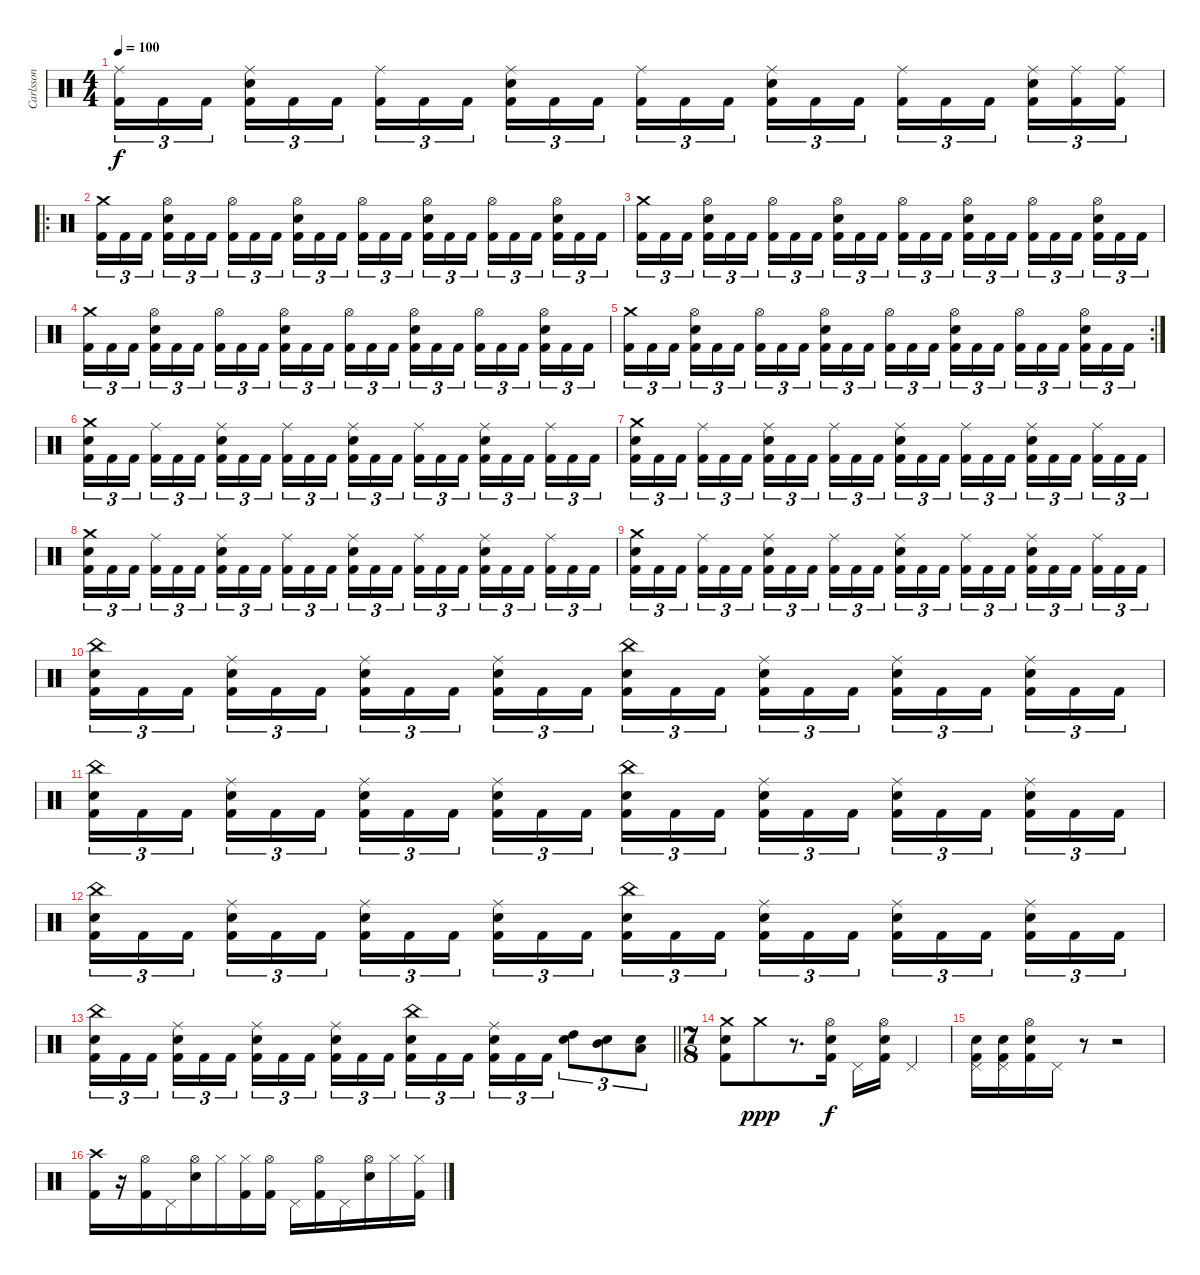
\track ("Carlsson" "Carlsson") {instrument percussion}
\staff {score}
\articulation defaults
\ts (4 4)
\tempo 100
\clef neutral
\ks c
("Ride (middle)" "Kick (hit) 2").16{tu (3 2) dy f} "Kick (hit) 2".16{tu (3 2)} "Kick (hit) 2".16{tu (3 2)} ("Ride (middle)" "Electric Snare (hit)" "Kick (hit) 2").16{tu (3 2)} "Kick (hit) 2".16{tu (3 2)} "Kick (hit) 2".16{tu (3 2)} ("Ride (middle)" "Kick (hit) 2").16{tu (3 2)} "Kick (hit) 2".16{tu (3 2)} "Kick (hit) 2".16{tu (3 2)} ("Ride (middle)" "Electric Snare (hit)" "Kick (hit) 2").16{tu (3 2)} "Kick (hit) 2".16{tu (3 2)} "Kick (hit) 2".16{tu (3 2)} ("Ride (middle)" "Kick (hit) 2").16{tu (3 2)} "Kick (hit) 2".16{tu (3 2)} "Kick (hit) 2".16{tu (3 2)} ("Ride (middle)" "Electric Snare (hit)" "Kick (hit) 2").16{tu (3 2)} "Kick (hit) 2".16{tu (3 2)} "Kick (hit) 2".16{tu (3 2)} ("Ride (middle)" "Kick (hit) 2").16{tu (3 2)} "Kick (hit) 2".16{tu (3 2)} "Kick (hit) 2".16{tu (3 2)} ("Ride (middle)" "Electric Snare (hit)" "Kick (hit) 2").16{tu (3 2)} ("Ride (middle)" "Kick (hit) 2").16{tu (3 2)} ("Ride (middle)" "Kick (hit) 2").16{tu (3 2)} |
\ro
("Crash medium (hit)" "Kick (hit) 2").16{tu (3 2)} "Kick (hit) 2".16{tu (3 2)} "Kick (hit) 2".16{tu (3 2)} ("Hi-Hat (open)" "Electric Snare (hit)" "Kick (hit) 2").16{tu (3 2)} "Kick (hit) 2".16{tu (3 2)} "Kick (hit) 2".16{tu (3 2)} ("Hi-Hat (open)" "Kick (hit) 2").16{tu (3 2)} "Kick (hit) 2".16{tu (3 2)} "Kick (hit) 2".16{tu (3 2)} ("Hi-Hat (open)" "Electric Snare (hit)" "Kick (hit) 2").16{tu (3 2)} "Kick (hit) 2".16{tu (3 2)} "Kick (hit) 2".16{tu (3 2)} ("Hi-Hat (open)" "Kick (hit) 2").16{tu (3 2)} "Kick (hit) 2".16{tu (3 2)} "Kick (hit) 2".16{tu (3 2)} ("Hi-Hat (open)" "Electric Snare (hit)" "Kick (hit) 2").16{tu (3 2)} "Kick (hit) 2".16{tu (3 2)} "Kick (hit) 2".16{tu (3 2)} ("Hi-Hat (open)" "Kick (hit) 2").16{tu (3 2)} "Kick (hit) 2".16{tu (3 2)} "Kick (hit) 2".16{tu (3 2)} ("Hi-Hat (open)" "Electric Snare (hit)" "Kick (hit) 2").16{tu (3 2)} "Kick (hit) 2".16{tu (3 2)} "Kick (hit) 2".16{tu (3 2)} |
("Crash medium (hit)" "Kick (hit) 2").16{tu (3 2)} "Kick (hit) 2".16{tu (3 2)} "Kick (hit) 2".16{tu (3 2)} ("Hi-Hat (open)" "Electric Snare (hit)" "Kick (hit) 2").16{tu (3 2)} "Kick (hit) 2".16{tu (3 2)} "Kick (hit) 2".16{tu (3 2)} ("Hi-Hat (open)" "Kick (hit) 2").16{tu (3 2)} "Kick (hit) 2".16{tu (3 2)} "Kick (hit) 2".16{tu (3 2)} ("Hi-Hat (open)" "Electric Snare (hit)" "Kick (hit) 2").16{tu (3 2)} "Kick (hit) 2".16{tu (3 2)} "Kick (hit) 2".16{tu (3 2)} ("Hi-Hat (open)" "Kick (hit) 2").16{tu (3 2)} "Kick (hit) 2".16{tu (3 2)} "Kick (hit) 2".16{tu (3 2)} ("Hi-Hat (open)" "Electric Snare (hit)" "Kick (hit) 2").16{tu (3 2)} "Kick (hit) 2".16{tu (3 2)} "Kick (hit) 2".16{tu (3 2)} ("Hi-Hat (open)" "Kick (hit) 2").16{tu (3 2)} "Kick (hit) 2".16{tu (3 2)} "Kick (hit) 2".16{tu (3 2)} ("Hi-Hat (open)" "Electric Snare (hit)" "Kick (hit) 2").16{tu (3 2)} "Kick (hit) 2".16{tu (3 2)} "Kick (hit) 2".16{tu (3 2)} |
("Crash medium (hit)" "Kick (hit) 2").16{tu (3 2)} "Kick (hit) 2".16{tu (3 2)} "Kick (hit) 2".16{tu (3 2)} ("Hi-Hat (open)" "Electric Snare (hit)" "Kick (hit) 2").16{tu (3 2)} "Kick (hit) 2".16{tu (3 2)} "Kick (hit) 2".16{tu (3 2)} ("Hi-Hat (open)" "Kick (hit) 2").16{tu (3 2)} "Kick (hit) 2".16{tu (3 2)} "Kick (hit) 2".16{tu (3 2)} ("Hi-Hat (open)" "Electric Snare (hit)" "Kick (hit) 2").16{tu (3 2)} "Kick (hit) 2".16{tu (3 2)} "Kick (hit) 2".16{tu (3 2)} ("Hi-Hat (open)" "Kick (hit) 2").16{tu (3 2)} "Kick (hit) 2".16{tu (3 2)} "Kick (hit) 2".16{tu (3 2)} ("Hi-Hat (open)" "Electric Snare (hit)" "Kick (hit) 2").16{tu (3 2)} "Kick (hit) 2".16{tu (3 2)} "Kick (hit) 2".16{tu (3 2)} ("Hi-Hat (open)" "Kick (hit) 2").16{tu (3 2)} "Kick (hit) 2".16{tu (3 2)} "Kick (hit) 2".16{tu (3 2)} ("Hi-Hat (open)" "Electric Snare (hit)" "Kick (hit) 2").16{tu (3 2)} "Kick (hit) 2".16{tu (3 2)} "Kick (hit) 2".16{tu (3 2)} |
\rc 2
("Crash medium (hit)" "Kick (hit) 2").16{tu (3 2)} "Kick (hit) 2".16{tu (3 2)} "Kick (hit) 2".16{tu (3 2)} ("Hi-Hat (open)" "Electric Snare (hit)" "Kick (hit) 2").16{tu (3 2)} "Kick (hit) 2".16{tu (3 2)} "Kick (hit) 2".16{tu (3 2)} ("Hi-Hat (open)" "Kick (hit) 2").16{tu (3 2)} "Kick (hit) 2".16{tu (3 2)} "Kick (hit) 2".16{tu (3 2)} ("Hi-Hat (open)" "Electric Snare (hit)" "Kick (hit) 2").16{tu (3 2)} "Kick (hit) 2".16{tu (3 2)} "Kick (hit) 2".16{tu (3 2)} ("Hi-Hat (open)" "Kick (hit) 2").16{tu (3 2)} "Kick (hit) 2".16{tu (3 2)} "Kick (hit) 2".16{tu (3 2)} ("Hi-Hat (open)" "Electric Snare (hit)" "Kick (hit) 2").16{tu (3 2)} "Kick (hit) 2".16{tu (3 2)} "Kick (hit) 2".16{tu (3 2)} ("Hi-Hat (open)" "Kick (hit) 2").16{tu (3 2)} "Kick (hit) 2".16{tu (3 2)} "Kick (hit) 2".16{tu (3 2)} ("Hi-Hat (open)" "Electric Snare (hit)" "Kick (hit) 2").16{tu (3 2)} "Kick (hit) 2".16{tu (3 2)} "Kick (hit) 2".16{tu (3 2)} |
("Crash medium (hit)" "Electric Snare (hit)" "Kick (hit) 2").16{tu (3 2)} "Kick (hit) 2".16{tu (3 2)} "Kick (hit) 2".16{tu (3 2)} ("Ride (middle)" "Kick (hit) 2").16{tu (3 2)} "Kick (hit) 2".16{tu (3 2)} "Kick (hit) 2".16{tu (3 2)} ("Ride (middle)" "Electric Snare (hit)" "Kick (hit) 2").16{tu (3 2)} "Kick (hit) 2".16{tu (3 2)} "Kick (hit) 2".16{tu (3 2)} ("Ride (middle)" "Kick (hit) 2").16{tu (3 2)} "Kick (hit) 2".16{tu (3 2)} "Kick (hit) 2".16{tu (3 2)} ("Ride (middle)" "Electric Snare (hit)" "Kick (hit) 2").16{tu (3 2)} "Kick (hit) 2".16{tu (3 2)} "Kick (hit) 2".16{tu (3 2)} ("Ride (middle)" "Kick (hit) 2").16{tu (3 2)} "Kick (hit) 2".16{tu (3 2)} "Kick (hit) 2".16{tu (3 2)} ("Ride (middle)" "Electric Snare (hit)" "Kick (hit) 2").16{tu (3 2)} "Kick (hit) 2".16{tu (3 2)} "Kick (hit) 2".16{tu (3 2)} ("Ride (middle)" "Kick (hit) 2").16{tu (3 2)} "Kick (hit) 2".16{tu (3 2)} "Kick (hit) 2".16{tu (3 2)} |
("Crash medium (hit)" "Electric Snare (hit)" "Kick (hit) 2").16{tu (3 2)} "Kick (hit) 2".16{tu (3 2)} "Kick (hit) 2".16{tu (3 2)} ("Ride (middle)" "Kick (hit) 2").16{tu (3 2)} "Kick (hit) 2".16{tu (3 2)} "Kick (hit) 2".16{tu (3 2)} ("Ride (middle)" "Electric Snare (hit)" "Kick (hit) 2").16{tu (3 2)} "Kick (hit) 2".16{tu (3 2)} "Kick (hit) 2".16{tu (3 2)} ("Ride (middle)" "Kick (hit) 2").16{tu (3 2)} "Kick (hit) 2".16{tu (3 2)} "Kick (hit) 2".16{tu (3 2)} ("Ride (middle)" "Electric Snare (hit)" "Kick (hit) 2").16{tu (3 2)} "Kick (hit) 2".16{tu (3 2)} "Kick (hit) 2".16{tu (3 2)} ("Ride (middle)" "Kick (hit) 2").16{tu (3 2)} "Kick (hit) 2".16{tu (3 2)} "Kick (hit) 2".16{tu (3 2)} ("Ride (middle)" "Electric Snare (hit)" "Kick (hit) 2").16{tu (3 2)} "Kick (hit) 2".16{tu (3 2)} "Kick (hit) 2".16{tu (3 2)} ("Ride (middle)" "Kick (hit) 2").16{tu (3 2)} "Kick (hit) 2".16{tu (3 2)} "Kick (hit) 2".16{tu (3 2)} |
("Crash medium (hit)" "Electric Snare (hit)" "Kick (hit) 2").16{tu (3 2)} "Kick (hit) 2".16{tu (3 2)} "Kick (hit) 2".16{tu (3 2)} ("Ride (middle)" "Kick (hit) 2").16{tu (3 2)} "Kick (hit) 2".16{tu (3 2)} "Kick (hit) 2".16{tu (3 2)} ("Ride (middle)" "Electric Snare (hit)" "Kick (hit) 2").16{tu (3 2)} "Kick (hit) 2".16{tu (3 2)} "Kick (hit) 2".16{tu (3 2)} ("Ride (middle)" "Kick (hit) 2").16{tu (3 2)} "Kick (hit) 2".16{tu (3 2)} "Kick (hit) 2".16{tu (3 2)} ("Ride (middle)" "Electric Snare (hit)" "Kick (hit) 2").16{tu (3 2)} "Kick (hit) 2".16{tu (3 2)} "Kick (hit) 2".16{tu (3 2)} ("Ride (middle)" "Kick (hit) 2").16{tu (3 2)} "Kick (hit) 2".16{tu (3 2)} "Kick (hit) 2".16{tu (3 2)} ("Ride (middle)" "Electric Snare (hit)" "Kick (hit) 2").16{tu (3 2)} "Kick (hit) 2".16{tu (3 2)} "Kick (hit) 2".16{tu (3 2)} ("Ride (middle)" "Kick (hit) 2").16{tu (3 2)} "Kick (hit) 2".16{tu (3 2)} "Kick (hit) 2".16{tu (3 2)} |
("Crash medium (hit)" "Electric Snare (hit)" "Kick (hit) 2").16{tu (3 2)} "Kick (hit) 2".16{tu (3 2)} "Kick (hit) 2".16{tu (3 2)} ("Ride (middle)" "Kick (hit) 2").16{tu (3 2)} "Kick (hit) 2".16{tu (3 2)} "Kick (hit) 2".16{tu (3 2)} ("Ride (middle)" "Electric Snare (hit)" "Kick (hit) 2").16{tu (3 2)} "Kick (hit) 2".16{tu (3 2)} "Kick (hit) 2".16{tu (3 2)} ("Ride (middle)" "Kick (hit) 2").16{tu (3 2)} "Kick (hit) 2".16{tu (3 2)} "Kick (hit) 2".16{tu (3 2)} ("Ride (middle)" "Electric Snare (hit)" "Kick (hit) 2").16{tu (3 2)} "Kick (hit) 2".16{tu (3 2)} "Kick (hit) 2".16{tu (3 2)} ("Ride (middle)" "Kick (hit) 2").16{tu (3 2)} "Kick (hit) 2".16{tu (3 2)} "Kick (hit) 2".16{tu (3 2)} ("Ride (middle)" "Electric Snare (hit)" "Kick (hit) 2").16{tu (3 2)} "Kick (hit) 2".16{tu (3 2)} "Kick (hit) 2".16{tu (3 2)} ("Ride (middle)" "Kick (hit) 2").16{tu (3 2)} "Kick (hit) 2".16{tu (3 2)} "Kick (hit) 2".16{tu (3 2)} |
("China (hit)" "Electric Snare (hit)" "Kick (hit) 2").16{tu (3 2)} "Kick (hit) 2".16{tu (3 2)} "Kick (hit) 2".16{tu (3 2)} ("Ride (middle)" "Electric Snare (hit)" "Kick (hit) 2").16{tu (3 2)} "Kick (hit) 2".16{tu (3 2)} "Kick (hit) 2".16{tu (3 2)} ("Ride (middle)" "Electric Snare (hit)" "Kick (hit) 2").16{tu (3 2)} "Kick (hit) 2".16{tu (3 2)} "Kick (hit) 2".16{tu (3 2)} ("Ride (middle)" "Electric Snare (hit)" "Kick (hit) 2").16{tu (3 2)} "Kick (hit) 2".16{tu (3 2)} "Kick (hit) 2".16{tu (3 2)} ("China (hit)" "Electric Snare (hit)" "Kick (hit) 2").16{tu (3 2)} "Kick (hit) 2".16{tu (3 2)} "Kick (hit) 2".16{tu (3 2)} ("Ride (middle)" "Electric Snare (hit)" "Kick (hit) 2").16{tu (3 2)} "Kick (hit) 2".16{tu (3 2)} "Kick (hit) 2".16{tu (3 2)} ("Ride (middle)" "Electric Snare (hit)" "Kick (hit) 2").16{tu (3 2)} "Kick (hit) 2".16{tu (3 2)} "Kick (hit) 2".16{tu (3 2)} ("Ride (middle)" "Electric Snare (hit)" "Kick (hit) 2").16{tu (3 2)} "Kick (hit) 2".16{tu (3 2)} "Kick (hit) 2".16{tu (3 2)} |
("China (hit)" "Electric Snare (hit)" "Kick (hit) 2").16{tu (3 2)} "Kick (hit) 2".16{tu (3 2)} "Kick (hit) 2".16{tu (3 2)} ("Ride (middle)" "Electric Snare (hit)" "Kick (hit) 2").16{tu (3 2)} "Kick (hit) 2".16{tu (3 2)} "Kick (hit) 2".16{tu (3 2)} ("Ride (middle)" "Electric Snare (hit)" "Kick (hit) 2").16{tu (3 2)} "Kick (hit) 2".16{tu (3 2)} "Kick (hit) 2".16{tu (3 2)} ("Ride (middle)" "Electric Snare (hit)" "Kick (hit) 2").16{tu (3 2)} "Kick (hit) 2".16{tu (3 2)} "Kick (hit) 2".16{tu (3 2)} ("China (hit)" "Electric Snare (hit)" "Kick (hit) 2").16{tu (3 2)} "Kick (hit) 2".16{tu (3 2)} "Kick (hit) 2".16{tu (3 2)} ("Ride (middle)" "Electric Snare (hit)" "Kick (hit) 2").16{tu (3 2)} "Kick (hit) 2".16{tu (3 2)} "Kick (hit) 2".16{tu (3 2)} ("Ride (middle)" "Electric Snare (hit)" "Kick (hit) 2").16{tu (3 2)} "Kick (hit) 2".16{tu (3 2)} "Kick (hit) 2".16{tu (3 2)} ("Ride (middle)" "Electric Snare (hit)" "Kick (hit) 2").16{tu (3 2)} "Kick (hit) 2".16{tu (3 2)} "Kick (hit) 2".16{tu (3 2)} |
("China (hit)" "Electric Snare (hit)" "Kick (hit) 2").16{tu (3 2)} "Kick (hit) 2".16{tu (3 2)} "Kick (hit) 2".16{tu (3 2)} ("Ride (middle)" "Electric Snare (hit)" "Kick (hit) 2").16{tu (3 2)} "Kick (hit) 2".16{tu (3 2)} "Kick (hit) 2".16{tu (3 2)} ("Ride (middle)" "Electric Snare (hit)" "Kick (hit) 2").16{tu (3 2)} "Kick (hit) 2".16{tu (3 2)} "Kick (hit) 2".16{tu (3 2)} ("Ride (middle)" "Electric Snare (hit)" "Kick (hit) 2").16{tu (3 2)} "Kick (hit) 2".16{tu (3 2)} "Kick (hit) 2".16{tu (3 2)} ("China (hit)" "Electric Snare (hit)" "Kick (hit) 2").16{tu (3 2)} "Kick (hit) 2".16{tu (3 2)} "Kick (hit) 2".16{tu (3 2)} ("Ride (middle)" "Electric Snare (hit)" "Kick (hit) 2").16{tu (3 2)} "Kick (hit) 2".16{tu (3 2)} "Kick (hit) 2".16{tu (3 2)} ("Ride (middle)" "Electric Snare (hit)" "Kick (hit) 2").16{tu (3 2)} "Kick (hit) 2".16{tu (3 2)} "Kick (hit) 2".16{tu (3 2)} ("Ride (middle)" "Electric Snare (hit)" "Kick (hit) 2").16{tu (3 2)} "Kick (hit) 2".16{tu (3 2)} "Kick (hit) 2".16{tu (3 2)} |
\barLineRight lightlight
("China (hit)" "Electric Snare (hit)" "Kick (hit) 2").16{tu (3 2)} "Kick (hit) 2".16{tu (3 2)} "Kick (hit) 2".16{tu (3 2)} ("Ride (middle)" "Electric Snare (hit)" "Kick (hit) 2").16{tu (3 2)} "Kick (hit) 2".16{tu (3 2)} "Kick (hit) 2".16{tu (3 2)} ("Ride (middle)" "Electric Snare (hit)" "Kick (hit) 2").16{tu (3 2)} "Kick (hit) 2".16{tu (3 2)} "Kick (hit) 2".16{tu (3 2)} ("Ride (middle)" "Electric Snare (hit)" "Kick (hit) 2").16{tu (3 2)} "Kick (hit) 2".16{tu (3 2)} "Kick (hit) 2".16{tu (3 2)} ("China (hit)" "Electric Snare (hit)" "Kick (hit) 2").16{tu (3 2)} "Kick (hit) 2".16{tu (3 2)} "Kick (hit) 2".16{tu (3 2)} ("Ride (middle)" "Electric Snare (hit)" "Kick (hit) 2").16{tu (3 2)} "Kick (hit) 2".16{tu (3 2)} "Kick (hit) 2".16{tu (3 2)} ("High Tom (hit)" "Electric Snare (hit)").8{tu (3 2)} ("Mid Tom (hit)" "Electric Snare (hit)").8{tu (3 2)} ("Low Tom (hit)" "Electric Snare (hit)").8{tu (3 2)} |
\ts (7 8)
("Crash medium (hit)" "Electric Snare (hit)" "Kick (hit) 2").8 "Crash medium (hit)".8{dy ppp} r.8{d} ("Hi-Hat (open)" "Electric Snare (hit)" "Kick (hit) 2").16{dy f} "Pedal Hi-Hat (hit)".16 ("Hi-Hat (open)" "Electric Snare (hit)" "Kick (hit) 2").16 "Pedal Hi-Hat (hit)".4 |
("Pedal Hi-Hat (hit)" "Electric Snare (hit)" "Kick (hit) 2").16 ("Pedal Hi-Hat (hit)" "Electric Snare (hit)" "Kick (hit) 2").16 ("Hi-Hat (open)" "Electric Snare (hit)" "Kick (hit) 2").16 "Pedal Hi-Hat (hit)".16 r.8 r.2 |
("Crash high (hit)" "Kick (hit) 2").16 r.16 ("Hi-Hat (open)" "Kick (hit) 2").16 "Pedal Hi-Hat (hit)".16 ("Hi-Hat (open)" "Electric Snare (hit)").16 "Hi-Hat (closed)".16 ("Hi-Hat (closed)" "Kick (hit) 2").16 ("Hi-Hat (open)" "Kick (hit) 2").16 "Pedal Hi-Hat (hit)".16 ("Hi-Hat (open)" "Kick (hit) 2").16 "Pedal Hi-Hat (hit)".16 ("Hi-Hat (open)" "Electric Snare (hit)").16 "Hi-Hat (closed)".16 ("Hi-Hat (closed)" "Kick (hit) 2").16
